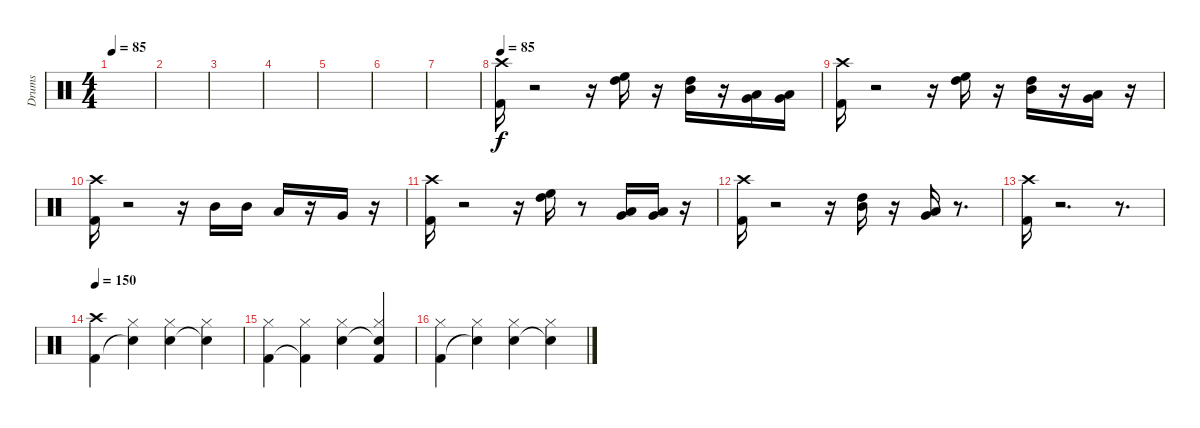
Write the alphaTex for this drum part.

\track ("Drums" "Drums") {instrument percussion}
\staff {score}
\articulation defaults
\ts (4 4)
\tempo 85
\clef neutral
\ks c
|
|
|
|
|
|
|
\tempo 85
("Crash high (hit)" "Kick (hit) 2").16 r.2 r.16 ("High Floor Tom (hit)" "High Tom (hit)").16 r.16 ("Mid Tom (hit)" "High Tom (hit)").16 r.16 ("Low Tom (hit)" "Very Low Tom (hit)").16 ("Low Tom (hit)" "Very Low Tom (hit)").16 |
("Crash high (hit)" "Kick (hit) 2").16 r.2 r.16 ("High Floor Tom (hit)" "High Tom (hit)").16 r.16 ("Mid Tom (hit)" "High Tom (hit)").16 r.16 ("Low Tom (hit)" "Very Low Tom (hit)").16 r.16 |
("Crash high (hit)" "Kick (hit) 2").16 r.2 r.16 "Mid Tom (hit)".16 "Mid Tom (hit)".16 "Low Tom (hit)".16 r.16 "Very Low Tom (hit)".16 r.16 |
("Crash high (hit)" "Kick (hit) 2").16 r.2 r.16 ("High Floor Tom (hit)" "High Tom (hit)").16 r.8 ("Low Tom (hit)" "Very Low Tom (hit)").16 ("Low Tom (hit)" "Very Low Tom (hit)").16 r.16 |
("Crash high (hit)" "Kick (hit) 2").16 r.2 r.16 ("Mid Tom (hit)" "High Tom (hit)").16 r.16 ("Low Tom (hit)" "Very Low Tom (hit)").16 r.8{d} |
("Crash high (hit)" "Kick (hit) 2").16 r.2{d} r.8{d} |
\tempo 150
("Crash high (hit)" "Kick (hit) 2").4 ("Hi-Hat (closed)" "Snare (hit)"{t}).4 ("Hi-Hat (closed)" "Electric Snare (hit)").4 ("Hi-Hat (closed)" "Snare (hit)"{t}).4 |
("Hi-Hat (closed)" "Kick (hit) 2").4 ("Hi-Hat (closed)" "Kick (hit) 2"{t}).4 ("Hi-Hat (closed)" "Electric Snare (hit)").4 ("Hi-Hat (closed)" "Snare (hit)"{t} "Kick (hit) 2").4 |
("Hi-Hat (closed)" "Kick (hit) 2").4 ("Hi-Hat (closed)" "Snare (hit)"{t}).4 ("Hi-Hat (closed)" "Electric Snare (hit)").4 ("Hi-Hat (closed)" "Snare (hit)"{t}).4
